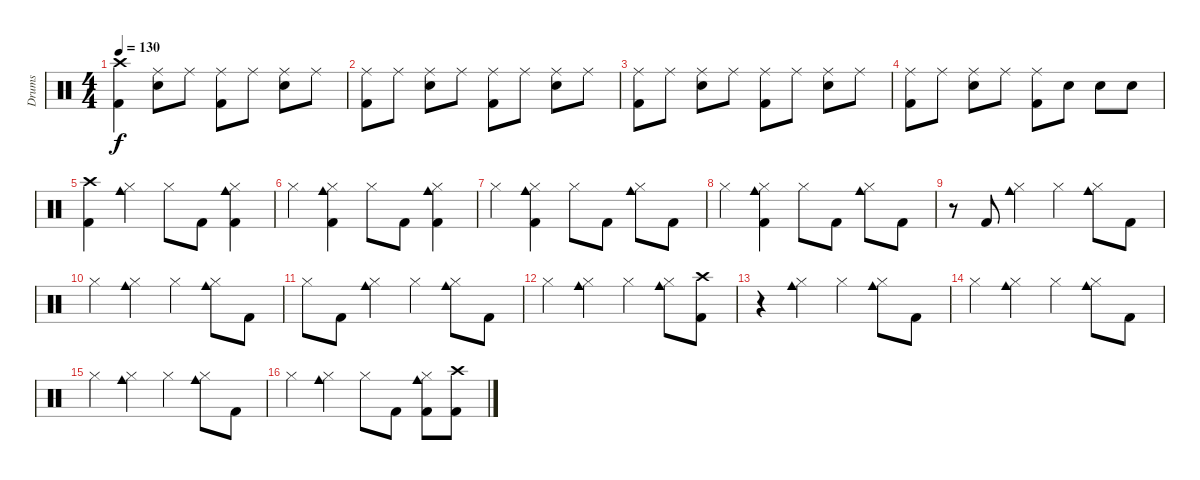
\track ("Drums" "Drums") {instrument percussion}
\staff {score}
\articulation defaults
\ts (4 4)
\tempo 130
\clef neutral
\ks c
("Crash high (hit)" "Kick (hit) 2").4{dy f} ("Ride (middle)" "Electric Snare (hit)").8 "Ride (middle)".8 ("Ride (middle)" "Kick (hit) 2").8 "Ride (middle)".8 ("Ride (middle)" "Electric Snare (hit)").8 "Ride (middle)".8 |
("Ride (middle)" "Kick (hit) 2").8 "Ride (middle)".8 ("Ride (middle)" "Electric Snare (hit)").8 "Ride (middle)".8 ("Ride (middle)" "Kick (hit) 2").8 "Ride (middle)".8 ("Ride (middle)" "Electric Snare (hit)").8 "Ride (middle)".8 |
("Ride (middle)" "Kick (hit) 2").8 "Ride (middle)".8 ("Ride (middle)" "Electric Snare (hit)").8 "Ride (middle)".8 ("Ride (middle)" "Kick (hit) 2").8 "Ride (middle)".8 ("Ride (middle)" "Electric Snare (hit)").8 "Ride (middle)".8 |
("Ride (middle)" "Kick (hit) 2").8 "Ride (middle)".8 ("Ride (middle)" "Electric Snare (hit)").8 "Ride (middle)".8 ("Ride (middle)" "Kick (hit) 2").8 "Electric Snare (hit)".8 "Electric Snare (hit)".8 "Electric Snare (hit)".8 |
("Crash high (hit)" "Kick (hit) 2").4 ("Hi-Hat (closed)" "Cowbell medium (hit)").4 "Hi-Hat (closed)".8 "Kick (hit) 2".8 ("Hi-Hat (closed)" "Cowbell medium (hit)" "Kick (hit) 2").4 |
"Hi-Hat (closed)".4 ("Hi-Hat (closed)" "Cowbell medium (hit)" "Kick (hit) 2").4 "Hi-Hat (closed)".8 "Kick (hit) 2".8 ("Hi-Hat (closed)" "Cowbell medium (hit)" "Kick (hit) 2").4 |
"Hi-Hat (closed)".4 ("Hi-Hat (closed)" "Cowbell medium (hit)" "Kick (hit) 2").4 "Hi-Hat (closed)".8 "Kick (hit) 2".8 ("Hi-Hat (closed)" "Cowbell medium (hit)").8 "Kick (hit) 2".8 |
"Hi-Hat (closed)".4 ("Hi-Hat (closed)" "Cowbell medium (hit)" "Kick (hit) 2").4 "Hi-Hat (closed)".8 "Kick (hit) 2".8 ("Hi-Hat (closed)" "Cowbell medium (hit)").8 "Kick (hit) 2".8 |
r.8 "Kick (hit) 2".8 ("Hi-Hat (closed)" "Cowbell medium (hit)").4 "Hi-Hat (closed)".4 ("Hi-Hat (closed)" "Cowbell medium (hit)").8 "Kick (hit) 2".8 |
"Hi-Hat (closed)".4 ("Hi-Hat (closed)" "Cowbell medium (hit)").4 "Hi-Hat (closed)".4 ("Hi-Hat (closed)" "Cowbell medium (hit)").8 "Kick (hit) 2".8 |
"Hi-Hat (closed)".8 "Kick (hit) 2".8 ("Hi-Hat (closed)" "Cowbell medium (hit)").4 "Hi-Hat (closed)".4 ("Hi-Hat (closed)" "Cowbell medium (hit)").8 "Kick (hit) 2".8 |
"Hi-Hat (closed)".4 ("Hi-Hat (closed)" "Cowbell medium (hit)").4 "Hi-Hat (closed)".4 ("Hi-Hat (closed)" "Cowbell medium (hit)").8 ("Crash high (hit)" "Kick (hit) 2").8 |
r.4 ("Hi-Hat (closed)" "Cowbell medium (hit)").4 "Hi-Hat (closed)".4 ("Hi-Hat (closed)" "Cowbell medium (hit)").8 "Kick (hit) 2".8 |
"Hi-Hat (closed)".4 ("Hi-Hat (closed)" "Cowbell medium (hit)").4 "Hi-Hat (closed)".4 ("Hi-Hat (closed)" "Cowbell medium (hit)").8 "Kick (hit) 2".8 |
"Hi-Hat (closed)".4 ("Hi-Hat (closed)" "Cowbell medium (hit)").4 "Hi-Hat (closed)".4 ("Hi-Hat (closed)" "Cowbell medium (hit)").8 "Kick (hit) 2".8 |
"Hi-Hat (closed)".4 ("Hi-Hat (closed)" "Cowbell medium (hit)").4 "Hi-Hat (closed)".8 "Kick (hit) 2".8 ("Hi-Hat (closed)" "Cowbell medium (hit)" "Kick (hit) 2").8 ("Crash high (hit)" "Kick (hit) 2").8
